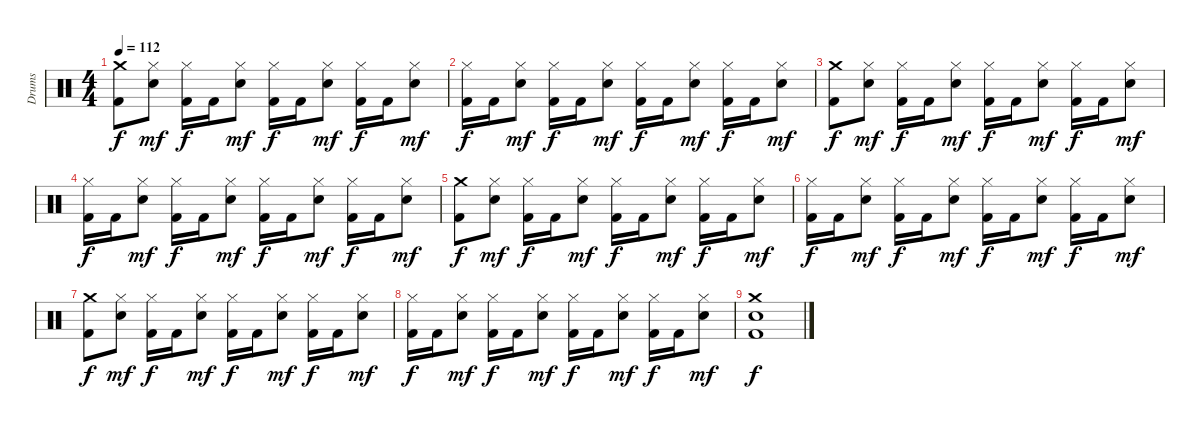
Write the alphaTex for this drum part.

\track ("Drums" "Drums") {instrument percussion}
\staff {score}
\articulation defaults
\ts (4 4)
\tempo 112
\clef neutral
\ks c
("Crash medium (hit)" "Kick (hit) 2").8{dy f} ("Hi-Hat (closed)" "Snare (hit) 2").8{dy mf} ("Hi-Hat (closed)" "Kick (hit) 2").16{dy f} "Kick (hit) 2".16 ("Hi-Hat (closed)" "Snare (hit) 2").8{dy mf} ("Hi-Hat (closed)" "Kick (hit) 2").16{dy f} "Kick (hit) 2".16 ("Hi-Hat (closed)" "Snare (hit) 2").8{dy mf} ("Hi-Hat (closed)" "Kick (hit) 2").16{dy f} "Kick (hit) 2".16 ("Hi-Hat (closed)" "Snare (hit) 2").8{dy mf} |
("Hi-Hat (closed)" "Kick (hit) 2").16{dy f} "Kick (hit) 2".16 ("Hi-Hat (closed)" "Snare (hit) 2").8{dy mf} ("Hi-Hat (closed)" "Kick (hit) 2").16{dy f} "Kick (hit) 2".16 ("Hi-Hat (closed)" "Snare (hit) 2").8{dy mf} ("Hi-Hat (closed)" "Kick (hit) 2").16{dy f} "Kick (hit) 2".16 ("Hi-Hat (closed)" "Snare (hit) 2").8{dy mf} ("Hi-Hat (closed)" "Kick (hit) 2").16{dy f} "Kick (hit) 2".16 ("Hi-Hat (closed)" "Snare (hit) 2").8{dy mf} |
("Crash medium (hit)" "Kick (hit) 2").8{dy f} ("Hi-Hat (closed)" "Snare (hit) 2").8{dy mf} ("Hi-Hat (closed)" "Kick (hit) 2").16{dy f} "Kick (hit) 2".16 ("Hi-Hat (closed)" "Snare (hit) 2").8{dy mf} ("Hi-Hat (closed)" "Kick (hit) 2").16{dy f} "Kick (hit) 2".16 ("Hi-Hat (closed)" "Snare (hit) 2").8{dy mf} ("Hi-Hat (closed)" "Kick (hit) 2").16{dy f} "Kick (hit) 2".16 ("Hi-Hat (closed)" "Snare (hit) 2").8{dy mf} |
("Hi-Hat (closed)" "Kick (hit) 2").16{dy f} "Kick (hit) 2".16 ("Hi-Hat (closed)" "Snare (hit) 2").8{dy mf} ("Hi-Hat (closed)" "Kick (hit) 2").16{dy f} "Kick (hit) 2".16 ("Hi-Hat (closed)" "Snare (hit) 2").8{dy mf} ("Hi-Hat (closed)" "Kick (hit) 2").16{dy f} "Kick (hit) 2".16 ("Hi-Hat (closed)" "Snare (hit) 2").8{dy mf} ("Hi-Hat (closed)" "Kick (hit) 2").16{dy f} "Kick (hit) 2".16 ("Hi-Hat (closed)" "Snare (hit) 2").8{dy mf} |
("Crash medium (hit)" "Kick (hit) 2").8{dy f} ("Hi-Hat (closed)" "Snare (hit) 2").8{dy mf} ("Hi-Hat (closed)" "Kick (hit) 2").16{dy f} "Kick (hit) 2".16 ("Hi-Hat (closed)" "Snare (hit) 2").8{dy mf} ("Hi-Hat (closed)" "Kick (hit) 2").16{dy f} "Kick (hit) 2".16 ("Hi-Hat (closed)" "Snare (hit) 2").8{dy mf} ("Hi-Hat (closed)" "Kick (hit) 2").16{dy f} "Kick (hit) 2".16 ("Hi-Hat (closed)" "Snare (hit) 2").8{dy mf} |
("Hi-Hat (closed)" "Kick (hit) 2").16{dy f} "Kick (hit) 2".16 ("Hi-Hat (closed)" "Snare (hit) 2").8{dy mf} ("Hi-Hat (closed)" "Kick (hit) 2").16{dy f} "Kick (hit) 2".16 ("Hi-Hat (closed)" "Snare (hit) 2").8{dy mf} ("Hi-Hat (closed)" "Kick (hit) 2").16{dy f} "Kick (hit) 2".16 ("Hi-Hat (closed)" "Snare (hit) 2").8{dy mf} ("Hi-Hat (closed)" "Kick (hit) 2").16{dy f} "Kick (hit) 2".16 ("Hi-Hat (closed)" "Snare (hit) 2").8{dy mf} |
("Crash medium (hit)" "Kick (hit) 2").8{dy f} ("Hi-Hat (closed)" "Snare (hit) 2").8{dy mf} ("Hi-Hat (closed)" "Kick (hit) 2").16{dy f} "Kick (hit) 2".16 ("Hi-Hat (closed)" "Snare (hit) 2").8{dy mf} ("Hi-Hat (closed)" "Kick (hit) 2").16{dy f} "Kick (hit) 2".16 ("Hi-Hat (closed)" "Snare (hit) 2").8{dy mf} ("Hi-Hat (closed)" "Kick (hit) 2").16{dy f} "Kick (hit) 2".16 ("Hi-Hat (closed)" "Snare (hit) 2").8{dy mf} |
("Hi-Hat (closed)" "Kick (hit) 2").16{dy f} "Kick (hit) 2".16 ("Hi-Hat (closed)" "Snare (hit) 2").8{dy mf} ("Hi-Hat (closed)" "Kick (hit) 2").16{dy f} "Kick (hit) 2".16 ("Hi-Hat (closed)" "Snare (hit) 2").8{dy mf} ("Hi-Hat (closed)" "Kick (hit) 2").16{dy f} "Kick (hit) 2".16 ("Hi-Hat (closed)" "Snare (hit) 2").8{dy mf} ("Hi-Hat (closed)" "Kick (hit) 2").16{dy f} "Kick (hit) 2".16 ("Hi-Hat (closed)" "Snare (hit) 2").8{dy mf} |
("Crash medium (hit)" "Snare (hit) 2" "Kick (hit) 2").1{dy f}
